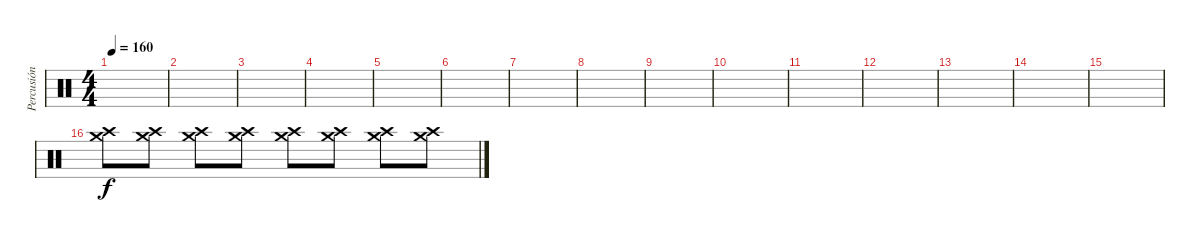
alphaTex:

\track ("Percusión" "Percusión") {instrument percussion}
\staff {score}
\articulation defaults
\ts (4 4)
\tempo 160
\clef neutral
\ks c
|
|
|
|
|
|
|
|
|
|
|
|
|
|
|
("Crash high (hit)" "Crash medium (hit)").8{balance 16} ("Crash high (hit)" "Crash medium (hit)").8 ("Crash high (hit)" "Crash medium (hit)").8 ("Crash high (hit)" "Crash medium (hit)").8 ("Crash high (hit)" "Crash medium (hit)").8 ("Crash high (hit)" "Crash medium (hit)").8 ("Crash high (hit)" "Crash medium (hit)").8 ("Crash high (hit)" "Crash medium (hit)").8
